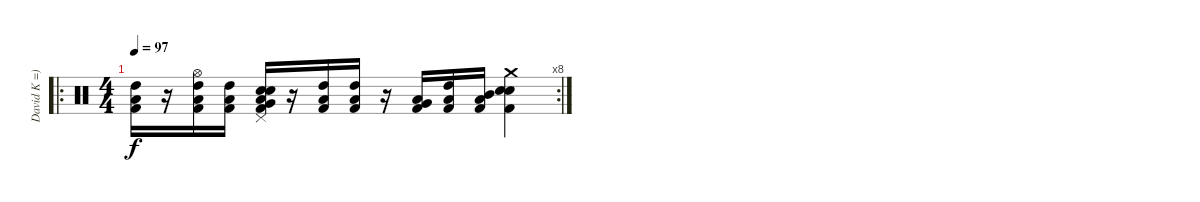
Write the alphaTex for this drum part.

\track ("David K =)" "David K =)") {instrument percussion}
\staff {score}
\articulation defaults
\ro
\rc 8
\ts (4 4)
\tempo 97
\clef neutral
\ks c
("Low Floor Tom (hit)" "High Tom (hit)" "Kick (hit) 2").16{dy f} r.16 ("Hi-Hat (open)" "Low Floor Tom (hit)" "High Tom (hit)" "Kick (hit) 2").16 ("Low Floor Tom (hit)" "High Tom (hit)" "Kick (hit) 2").16 ("Pedal Hi-Hat (hit)" "Low Floor Tom (hit)" "Electric Snare (hit)" "Kick (hit) 2" "Snare (hit) 2" "Very Low Tom (hit)").16 r.16 ("Low Floor Tom (hit)" "High Tom (hit)" "Kick (hit) 2").16 ("Low Floor Tom (hit)" "High Tom (hit)" "Kick (hit) 2").16 r.16 ("Low Floor Tom (hit)" "Very Low Tom (hit)" "Kick (hit) 2").16 ("Low Floor Tom (hit)" "High Tom (hit)" "Kick (hit) 2").16 ("Low Floor Tom (hit)" "Mid Tom (hit)" "Kick (hit) 2").16 ("Crash medium (hit)" "Snare (hit) 2" "Electric Snare (hit)" "Kick (hit) 2").4
